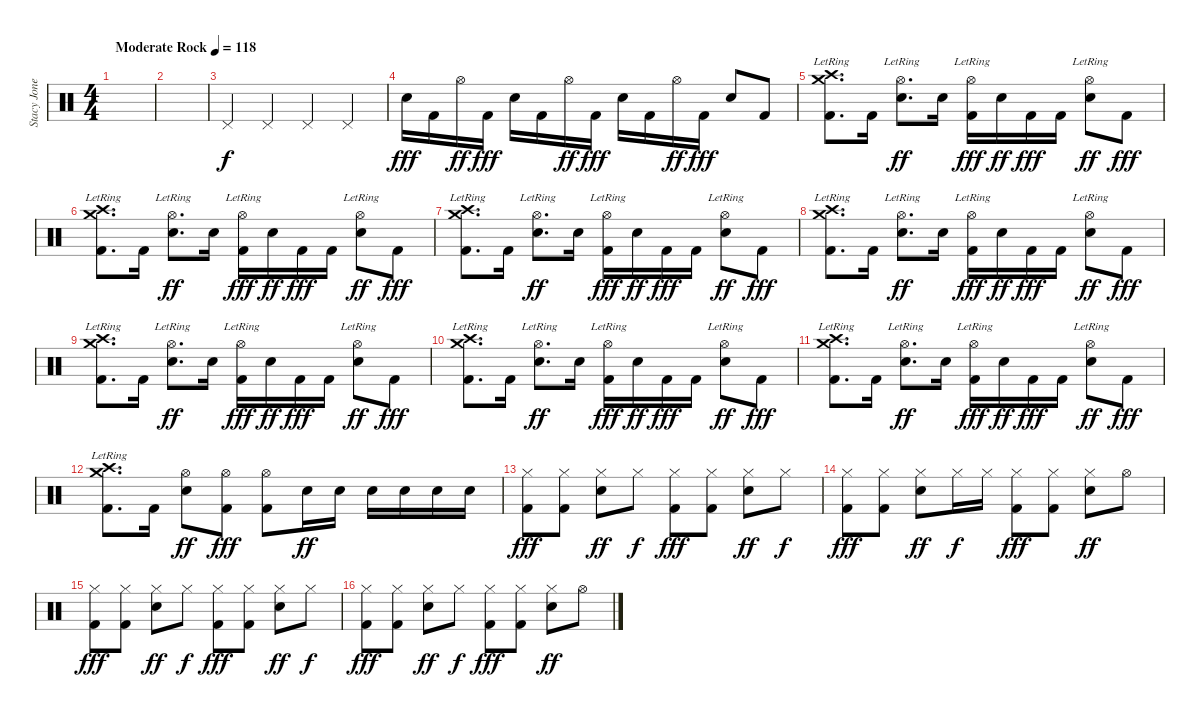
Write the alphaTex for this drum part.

\track ("Stacy Jones: Remo/Sabian HHX/AAX" "Stacy Jone") {instrument percussion}
\staff {score}
\articulation defaults
\ts (4 4)
\tempo (118 "Moderate Rock")
\clef neutral
\ks c
|
|
"Pedal Hi-Hat (hit)".4 "Pedal Hi-Hat (hit)".4 "Pedal Hi-Hat (hit)".4 "Pedal Hi-Hat (hit)".4 |
"Electric Snare (hit)".16{dy fff} "Kick (hit) 2".16 "Hi-Hat (open)".16{dy ff} "Kick (hit) 2".16{dy fff} "Electric Snare (hit)".16 "Kick (hit) 2".16 "Hi-Hat (open)".16{dy ff} "Kick (hit) 2".16{dy fff} "Electric Snare (hit)".16 "Kick (hit) 2".16 "Hi-Hat (open)".16{dy ff} "Kick (hit) 2".16{dy fff} "Electric Snare (hit)".8 "Kick (hit) 2".8 |
("Crash medium (hit)"{lr} "Crash high (hit)"{lr} "Kick (hit) 2").8{d} "Kick (hit) 2".16 ("Hi-Hat (open)"{lr} "Electric Snare (hit)").8{d dy ff} "Electric Snare (hit)".16 ("Hi-Hat (open)"{lr} "Kick (hit) 2").16{dy fff} "Electric Snare (hit)".16{dy ff} "Kick (hit) 2".16{dy fff} "Kick (hit) 2".16 ("Hi-Hat (open)"{lr} "Electric Snare (hit)").8{dy ff} "Kick (hit) 2".8{dy fff} |
("Crash medium (hit)"{lr} "Crash high (hit)"{lr} "Kick (hit) 2").8{d} "Kick (hit) 2".16 ("Hi-Hat (open)"{lr} "Electric Snare (hit)").8{d dy ff} "Electric Snare (hit)".16 ("Hi-Hat (open)"{lr} "Kick (hit) 2").16{dy fff} "Electric Snare (hit)".16{dy ff} "Kick (hit) 2".16{dy fff} "Kick (hit) 2".16 ("Hi-Hat (open)"{lr} "Electric Snare (hit)").8{dy ff} "Kick (hit) 2".8{dy fff} |
("Crash medium (hit)"{lr} "Crash high (hit)"{lr} "Kick (hit) 2").8{d} "Kick (hit) 2".16 ("Hi-Hat (open)"{lr} "Electric Snare (hit)").8{d dy ff} "Electric Snare (hit)".16 ("Hi-Hat (open)"{lr} "Kick (hit) 2").16{dy fff} "Electric Snare (hit)".16{dy ff} "Kick (hit) 2".16{dy fff} "Kick (hit) 2".16 ("Hi-Hat (open)"{lr} "Electric Snare (hit)").8{dy ff} "Kick (hit) 2".8{dy fff} |
("Crash medium (hit)"{lr} "Crash high (hit)"{lr} "Kick (hit) 2").8{d} "Kick (hit) 2".16 ("Hi-Hat (open)"{lr} "Electric Snare (hit)").8{d dy ff} "Electric Snare (hit)".16 ("Hi-Hat (open)"{lr} "Kick (hit) 2").16{dy fff} "Electric Snare (hit)".16{dy ff} "Kick (hit) 2".16{dy fff} "Kick (hit) 2".16 ("Hi-Hat (open)"{lr} "Electric Snare (hit)").8{dy ff} "Kick (hit) 2".8{dy fff} |
("Crash medium (hit)"{lr} "Crash high (hit)"{lr} "Kick (hit) 2").8{d} "Kick (hit) 2".16 ("Hi-Hat (open)"{lr} "Electric Snare (hit)").8{d dy ff} "Electric Snare (hit)".16 ("Hi-Hat (open)"{lr} "Kick (hit) 2").16{dy fff} "Electric Snare (hit)".16{dy ff} "Kick (hit) 2".16{dy fff} "Kick (hit) 2".16 ("Hi-Hat (open)"{lr} "Electric Snare (hit)").8{dy ff} "Kick (hit) 2".8{dy fff} |
("Crash medium (hit)"{lr} "Crash high (hit)"{lr} "Kick (hit) 2").8{d} "Kick (hit) 2".16 ("Hi-Hat (open)"{lr} "Electric Snare (hit)").8{d dy ff} "Electric Snare (hit)".16 ("Hi-Hat (open)"{lr} "Kick (hit) 2").16{dy fff} "Electric Snare (hit)".16{dy ff} "Kick (hit) 2".16{dy fff} "Kick (hit) 2".16 ("Hi-Hat (open)"{lr} "Electric Snare (hit)").8{dy ff} "Kick (hit) 2".8{dy fff} |
("Crash medium (hit)"{lr} "Crash high (hit)"{lr} "Kick (hit) 2").8{d} "Kick (hit) 2".16 ("Hi-Hat (open)"{lr} "Electric Snare (hit)").8{d dy ff} "Electric Snare (hit)".16 ("Hi-Hat (open)"{lr} "Kick (hit) 2").16{dy fff} "Electric Snare (hit)".16{dy ff} "Kick (hit) 2".16{dy fff} "Kick (hit) 2".16 ("Hi-Hat (open)"{lr} "Electric Snare (hit)").8{dy ff} "Kick (hit) 2".8{dy fff} |
("Crash medium (hit)"{lr} "Crash high (hit)"{lr} "Kick (hit) 2").8{d} "Kick (hit) 2".16 ("Hi-Hat (open)" "Electric Snare (hit)").8{dy ff} ("Hi-Hat (open)" "Kick (hit) 2").8{dy fff} ("Hi-Hat (open)" "Kick (hit) 2").8 "Electric Snare (hit)".16{dy ff} "Electric Snare (hit)".16 "Electric Snare (hit)".16 "Electric Snare (hit)".16 "Electric Snare (hit)".16 "Electric Snare (hit)".16 |
("Hi-Hat (closed)" "Kick (hit) 2").8{dy fff} ("Hi-Hat (closed)" "Kick (hit) 2").8 ("Hi-Hat (closed)" "Electric Snare (hit)").8{dy ff} "Hi-Hat (closed)".8{dy f} ("Hi-Hat (closed)" "Kick (hit) 2").8{dy fff} ("Hi-Hat (closed)" "Kick (hit) 2").8 ("Hi-Hat (closed)" "Electric Snare (hit)").8{dy ff} "Hi-Hat (closed)".8{dy f} |
("Hi-Hat (closed)" "Kick (hit) 2").8{dy fff} ("Hi-Hat (closed)" "Kick (hit) 2").8 ("Hi-Hat (closed)" "Electric Snare (hit)").8{dy ff} "Hi-Hat (closed)".16{dy f} "Hi-Hat (closed)".16 ("Hi-Hat (closed)" "Kick (hit) 2").8{dy fff} ("Hi-Hat (closed)" "Kick (hit) 2").8 ("Hi-Hat (closed)" "Electric Snare (hit)").8{dy ff} "Hi-Hat (open)".8 |
("Hi-Hat (closed)" "Kick (hit) 2").8{dy fff} ("Hi-Hat (closed)" "Kick (hit) 2").8 ("Hi-Hat (closed)" "Electric Snare (hit)").8{dy ff} "Hi-Hat (closed)".8{dy f} ("Hi-Hat (closed)" "Kick (hit) 2").8{dy fff} ("Hi-Hat (closed)" "Kick (hit) 2").8 ("Hi-Hat (closed)" "Electric Snare (hit)").8{dy ff} "Hi-Hat (closed)".8{dy f} |
("Hi-Hat (closed)" "Kick (hit) 2").8{dy fff} ("Hi-Hat (closed)" "Kick (hit) 2").8 ("Hi-Hat (closed)" "Electric Snare (hit)").8{dy ff} "Hi-Hat (closed)".8{dy f} ("Hi-Hat (closed)" "Kick (hit) 2").8{dy fff} ("Hi-Hat (closed)" "Kick (hit) 2").8 ("Hi-Hat (closed)" "Electric Snare (hit)").8{dy ff} "Hi-Hat (open)".8
